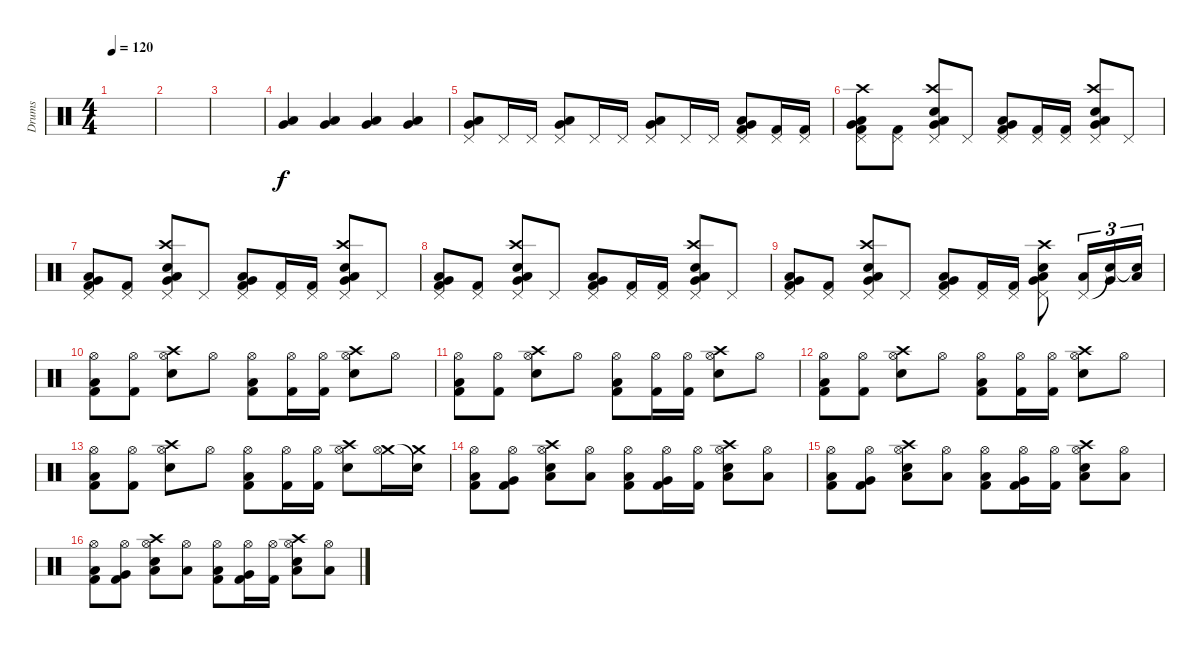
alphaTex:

\track ("Drums" "Drums") {instrument percussion}
\staff {score}
\articulation defaults
\ts (4 4)
\tempo 120
\clef neutral
\ks c
|
|
|
("Low Tom (hit)" "Very Low Tom (hit)").4 ("Low Tom (hit)" "Very Low Tom (hit)").4 ("Low Tom (hit)" "Very Low Tom (hit)").4 ("Low Tom (hit)" "Very Low Tom (hit)").4 |
("Pedal Hi-Hat (hit)" "Low Tom (hit)" "Very Low Tom (hit)").8 "Pedal Hi-Hat (hit)".16 "Pedal Hi-Hat (hit)".16 ("Pedal Hi-Hat (hit)" "Low Tom (hit)" "Very Low Tom (hit)").8 "Pedal Hi-Hat (hit)".16 "Pedal Hi-Hat (hit)".16 ("Pedal Hi-Hat (hit)" "Low Tom (hit)" "Very Low Tom (hit)").8 "Pedal Hi-Hat (hit)".16 "Pedal Hi-Hat (hit)".16 ("Pedal Hi-Hat (hit)" "Low Tom (hit)" "Very Low Tom (hit)" "Kick (hit) 2").8 ("Pedal Hi-Hat (hit)" "Kick (hit) 2").16 ("Pedal Hi-Hat (hit)" "Kick (hit) 2").16 |
("Low Tom (hit)" "Very Low Tom (hit)" "Pedal Hi-Hat (hit)" "Crash high (hit)" "Kick (hit) 2").8 ("Pedal Hi-Hat (hit)" "Kick (hit) 2").8 ("Low Tom (hit)" "Very Low Tom (hit)" "Pedal Hi-Hat (hit)" "Crash high (hit)" "Snare (hit) 2").8 "Pedal Hi-Hat (hit)".8 ("Low Tom (hit)" "Very Low Tom (hit)" "Pedal Hi-Hat (hit)" "Kick (hit) 2").8 ("Pedal Hi-Hat (hit)" "Kick (hit) 2").16 ("Pedal Hi-Hat (hit)" "Kick (hit) 2").16 ("Low Tom (hit)" "Very Low Tom (hit)" "Pedal Hi-Hat (hit)" "Crash high (hit)" "Snare (hit) 2").8 "Pedal Hi-Hat (hit)".8 |
("Low Tom (hit)" "Very Low Tom (hit)" "Pedal Hi-Hat (hit)" "Kick (hit) 2").8 ("Pedal Hi-Hat (hit)" "Kick (hit) 2").8 ("Low Tom (hit)" "Very Low Tom (hit)" "Pedal Hi-Hat (hit)" "Crash high (hit)" "Snare (hit) 2").8 "Pedal Hi-Hat (hit)".8 ("Low Tom (hit)" "Very Low Tom (hit)" "Pedal Hi-Hat (hit)" "Kick (hit) 2").8 ("Pedal Hi-Hat (hit)" "Kick (hit) 2").16 ("Pedal Hi-Hat (hit)" "Kick (hit) 2").16 ("Low Tom (hit)" "Very Low Tom (hit)" "Pedal Hi-Hat (hit)" "Crash high (hit)" "Snare (hit) 2").8 "Pedal Hi-Hat (hit)".8 |
("Low Tom (hit)" "Very Low Tom (hit)" "Pedal Hi-Hat (hit)" "Kick (hit) 2").8 ("Pedal Hi-Hat (hit)" "Kick (hit) 2").8 ("Low Tom (hit)" "Very Low Tom (hit)" "Pedal Hi-Hat (hit)" "Crash high (hit)" "Snare (hit) 2").8 "Pedal Hi-Hat (hit)".8 ("Low Tom (hit)" "Very Low Tom (hit)" "Pedal Hi-Hat (hit)" "Kick (hit) 2").8 ("Pedal Hi-Hat (hit)" "Kick (hit) 2").16 ("Pedal Hi-Hat (hit)" "Kick (hit) 2").16 ("Low Tom (hit)" "Very Low Tom (hit)" "Pedal Hi-Hat (hit)" "Crash high (hit)" "Snare (hit) 2").8 "Pedal Hi-Hat (hit)".8 |
("Low Tom (hit)" "Very Low Tom (hit)" "Pedal Hi-Hat (hit)" "Kick (hit) 2").8 ("Pedal Hi-Hat (hit)" "Kick (hit) 2").8 ("Low Tom (hit)" "Very Low Tom (hit)" "Pedal Hi-Hat (hit)" "Crash high (hit)" "Snare (hit) 2").8 "Pedal Hi-Hat (hit)".8 ("Low Tom (hit)" "Very Low Tom (hit)" "Pedal Hi-Hat (hit)" "Kick (hit) 2").8 ("Pedal Hi-Hat (hit)" "Kick (hit) 2").16 ("Pedal Hi-Hat (hit)" "Kick (hit) 2").16 ("Low Tom (hit)" "Very Low Tom (hit)" "Pedal Hi-Hat (hit)" "Crash high (hit)" "Snare (hit) 2").8 ("Pedal Hi-Hat (hit)" "Low Tom (hit)").16{tu (3 2)} ("Snare (hit)"{t} "Very Low Tom (hit)").16{tu (3 2)} ("Snare (hit)"{t} "Low Floor Tom (hit)").16{tu (3 2)} |
("Hi-Hat (open)" "Low Tom (hit)" "Kick (hit) 2").8 ("Hi-Hat (open)" "Kick (hit) 2").8 ("Hi-Hat (open)" "Crash high (hit)" "Snare (hit) 2").8 "Hi-Hat (open)".8 ("Hi-Hat (open)" "Low Tom (hit)" "Kick (hit) 2").8 ("Hi-Hat (open)" "Kick (hit) 2").16 ("Hi-Hat (open)" "Kick (hit) 2").16 ("Hi-Hat (open)" "Crash high (hit)" "Snare (hit) 2").8 "Hi-Hat (open)".8 |
("Hi-Hat (open)" "Low Tom (hit)" "Kick (hit) 2").8 ("Hi-Hat (open)" "Kick (hit) 2").8 ("Hi-Hat (open)" "Crash high (hit)" "Snare (hit) 2").8 "Hi-Hat (open)".8 ("Hi-Hat (open)" "Low Tom (hit)" "Kick (hit) 2").8 ("Hi-Hat (open)" "Kick (hit) 2").16 ("Hi-Hat (open)" "Kick (hit) 2").16 ("Hi-Hat (open)" "Crash high (hit)" "Snare (hit) 2").8 "Hi-Hat (open)".8 |
("Hi-Hat (open)" "Low Tom (hit)" "Kick (hit) 2").8 ("Hi-Hat (open)" "Kick (hit) 2").8 ("Hi-Hat (open)" "Crash high (hit)" "Snare (hit) 2").8 "Hi-Hat (open)".8 ("Hi-Hat (open)" "Low Tom (hit)" "Kick (hit) 2").8 ("Hi-Hat (open)" "Kick (hit) 2").16 ("Hi-Hat (open)" "Kick (hit) 2").16 ("Hi-Hat (open)" "Crash high (hit)" "Snare (hit) 2").8 "Hi-Hat (open)".8 |
("Hi-Hat (open)" "Low Tom (hit)" "Kick (hit) 2").8 ("Hi-Hat (open)" "Kick (hit) 2").8 ("Hi-Hat (open)" "Crash high (hit)" "Snare (hit) 2").8 "Hi-Hat (open)".8 ("Hi-Hat (open)" "Low Tom (hit)" "Kick (hit) 2").8 ("Hi-Hat (open)" "Kick (hit) 2").16 ("Hi-Hat (open)" "Kick (hit) 2").16 ("Hi-Hat (open)" "Crash high (hit)" "Snare (hit) 2").8 ("Crash medium (hit)" "Hi-Hat (open)").16 ("Crash medium (hit)" "Snare (hit)"{t}).16 |
("Hi-Hat (open)" "Low Tom (hit)" "Kick (hit) 2").8 ("Hi-Hat (open)" "Very Low Tom (hit)" "Kick (hit) 2").8 ("Hi-Hat (open)" "Crash high (hit)" "Low Floor Tom (hit)" "Snare (hit) 2").8 ("Hi-Hat (open)" "Low Tom (hit)").8 ("Hi-Hat (open)" "Low Tom (hit)" "Kick (hit) 2").8 ("Hi-Hat (open)" "Very Low Tom (hit)" "Kick (hit) 2").16 ("Hi-Hat (open)" "Kick (hit) 2").16 ("Hi-Hat (open)" "Crash high (hit)" "Low Floor Tom (hit)" "Snare (hit) 2").8 ("Hi-Hat (open)" "Low Tom (hit)").8 |
("Hi-Hat (open)" "Low Tom (hit)" "Kick (hit) 2").8 ("Hi-Hat (open)" "Very Low Tom (hit)" "Kick (hit) 2").8 ("Hi-Hat (open)" "Crash high (hit)" "Low Floor Tom (hit)" "Snare (hit) 2").8 ("Hi-Hat (open)" "Low Tom (hit)").8 ("Hi-Hat (open)" "Low Tom (hit)" "Kick (hit) 2").8 ("Hi-Hat (open)" "Very Low Tom (hit)" "Kick (hit) 2").16 ("Hi-Hat (open)" "Kick (hit) 2").16 ("Hi-Hat (open)" "Crash high (hit)" "Low Floor Tom (hit)" "Snare (hit) 2").8 ("Hi-Hat (open)" "Low Tom (hit)").8 |
("Hi-Hat (open)" "Low Tom (hit)" "Kick (hit) 2").8 ("Hi-Hat (open)" "Very Low Tom (hit)" "Kick (hit) 2").8 ("Hi-Hat (open)" "Crash high (hit)" "Low Floor Tom (hit)" "Snare (hit) 2").8 ("Hi-Hat (open)" "Low Tom (hit)").8 ("Hi-Hat (open)" "Low Tom (hit)" "Kick (hit) 2").8 ("Hi-Hat (open)" "Very Low Tom (hit)" "Kick (hit) 2").16 ("Hi-Hat (open)" "Kick (hit) 2").16 ("Hi-Hat (open)" "Crash high (hit)" "Low Floor Tom (hit)" "Snare (hit) 2").8 ("Hi-Hat (open)" "Low Tom (hit)").8
